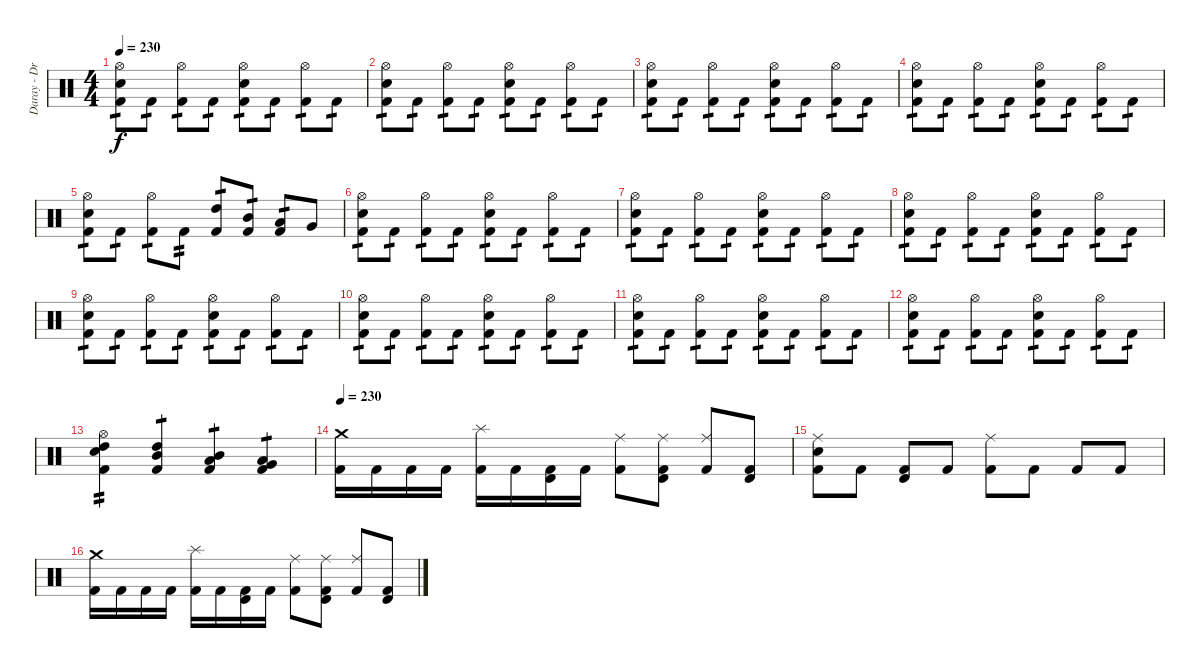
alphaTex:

\track ("Daray - Drums" "Daray - Dr") {instrument percussion}
\staff {score}
\articulation defaults
\ts (4 4)
\tempo 230
\clef neutral
\ks c
("Hi-Hat (open)" "Electric Snare (hit)" "Kick (hit) 2").8{tp 1 dy f} "Kick (hit) 2".8{tp 1} ("Hi-Hat (open)" "Kick (hit) 2").8{tp 1} "Kick (hit) 2".8{tp 1} ("Hi-Hat (open)" "Electric Snare (hit)" "Kick (hit) 2").8{tp 1} "Kick (hit) 2".8{tp 1} ("Hi-Hat (open)" "Kick (hit) 2").8{tp 1} "Kick (hit) 2".8{tp 1} |
("Hi-Hat (open)" "Electric Snare (hit)" "Kick (hit) 2").8{tp 1} "Kick (hit) 2".8{tp 1} ("Hi-Hat (open)" "Kick (hit) 2").8{tp 1} "Kick (hit) 2".8{tp 1} ("Hi-Hat (open)" "Electric Snare (hit)" "Kick (hit) 2").8{tp 1} "Kick (hit) 2".8{tp 1} ("Hi-Hat (open)" "Kick (hit) 2").8{tp 1} "Kick (hit) 2".8{tp 1} |
("Hi-Hat (open)" "Electric Snare (hit)" "Kick (hit) 2").8{tp 1} "Kick (hit) 2".8{tp 1} ("Hi-Hat (open)" "Kick (hit) 2").8{tp 1} "Kick (hit) 2".8{tp 1} ("Hi-Hat (open)" "Electric Snare (hit)" "Kick (hit) 2").8{tp 1} "Kick (hit) 2".8{tp 1} ("Hi-Hat (open)" "Kick (hit) 2").8{tp 1} "Kick (hit) 2".8{tp 1} |
("Hi-Hat (open)" "Electric Snare (hit)" "Kick (hit) 2").8{tp 1} "Kick (hit) 2".8{tp 1} ("Hi-Hat (open)" "Kick (hit) 2").8{tp 1} "Kick (hit) 2".8{tp 1} ("Hi-Hat (open)" "Electric Snare (hit)" "Kick (hit) 2").8{tp 1} "Kick (hit) 2".8{tp 1} ("Hi-Hat (open)" "Kick (hit) 2").8{tp 1} "Kick (hit) 2".8{tp 1} |
("Hi-Hat (open)" "Electric Snare (hit)" "Kick (hit) 2").8{tp 1} "Kick (hit) 2".8{tp 1} ("Hi-Hat (open)" "Kick (hit) 2").8{tp 1} "Kick (hit) 2".8{tp 2} ("High Tom (hit)" "Kick (hit) 2").8{tp 1} ("Mid Tom (hit)" "Kick (hit) 2").8{tp 1} ("Low Tom (hit)" "Kick (hit) 2").8{tp 1} "Very Low Tom (hit)".8 |
("Hi-Hat (open)" "Electric Snare (hit)" "Kick (hit) 2").8{tp 1} "Kick (hit) 2".8{tp 1} ("Hi-Hat (open)" "Kick (hit) 2").8{tp 1} "Kick (hit) 2".8{tp 1} ("Hi-Hat (open)" "Electric Snare (hit)" "Kick (hit) 2").8{tp 1} "Kick (hit) 2".8{tp 1} ("Hi-Hat (open)" "Kick (hit) 2").8{tp 1} "Kick (hit) 2".8{tp 1} |
("Hi-Hat (open)" "Electric Snare (hit)" "Kick (hit) 2").8{tp 1} "Kick (hit) 2".8{tp 1} ("Hi-Hat (open)" "Kick (hit) 2").8{tp 1} "Kick (hit) 2".8{tp 1} ("Hi-Hat (open)" "Electric Snare (hit)" "Kick (hit) 2").8{tp 1} "Kick (hit) 2".8{tp 1} ("Hi-Hat (open)" "Kick (hit) 2").8{tp 1} "Kick (hit) 2".8{tp 1} |
("Hi-Hat (open)" "Electric Snare (hit)" "Kick (hit) 2").8{tp 1} "Kick (hit) 2".8{tp 1} ("Hi-Hat (open)" "Kick (hit) 2").8{tp 1} "Kick (hit) 2".8{tp 1} ("Hi-Hat (open)" "Electric Snare (hit)" "Kick (hit) 2").8{tp 1} "Kick (hit) 2".8{tp 1} ("Hi-Hat (open)" "Kick (hit) 2").8{tp 1} "Kick (hit) 2".8{tp 1} |
("Hi-Hat (open)" "Electric Snare (hit)" "Kick (hit) 2").8{tp 1} "Kick (hit) 2".8{tp 1} ("Hi-Hat (open)" "Kick (hit) 2").8{tp 1} "Kick (hit) 2".8{tp 1} ("Hi-Hat (open)" "Electric Snare (hit)" "Kick (hit) 2").8{tp 1} "Kick (hit) 2".8{tp 1} ("Hi-Hat (open)" "Kick (hit) 2").8{tp 1} "Kick (hit) 2".8{tp 1} |
("Hi-Hat (open)" "Electric Snare (hit)" "Kick (hit) 2").8{tp 1} "Kick (hit) 2".8{tp 1} ("Hi-Hat (open)" "Kick (hit) 2").8{tp 1} "Kick (hit) 2".8{tp 1} ("Hi-Hat (open)" "Electric Snare (hit)" "Kick (hit) 2").8{tp 1} "Kick (hit) 2".8{tp 1} ("Hi-Hat (open)" "Kick (hit) 2").8{tp 1} "Kick (hit) 2".8{tp 1} |
("Hi-Hat (open)" "Electric Snare (hit)" "Kick (hit) 2").8{tp 1} "Kick (hit) 2".8{tp 1} ("Hi-Hat (open)" "Kick (hit) 2").8{tp 1} "Kick (hit) 2".8{tp 1} ("Hi-Hat (open)" "Electric Snare (hit)" "Kick (hit) 2").8{tp 1} "Kick (hit) 2".8{tp 1} ("Hi-Hat (open)" "Kick (hit) 2").8{tp 1} "Kick (hit) 2".8{tp 1} |
("Hi-Hat (open)" "Electric Snare (hit)" "Kick (hit) 2").8{tp 1} "Kick (hit) 2".8{tp 1} ("Hi-Hat (open)" "Kick (hit) 2").8{tp 1} "Kick (hit) 2".8{tp 1} ("Hi-Hat (open)" "Electric Snare (hit)" "Kick (hit) 2").8{tp 1} "Kick (hit) 2".8{tp 1} ("Hi-Hat (open)" "Kick (hit) 2").8{tp 1} "Kick (hit) 2".8{tp 1} |
("Hi-Hat (open)" "Electric Snare (hit)" "High Tom (hit)" "Kick (hit) 2").4{tp 2} ("High Tom (hit)" "Mid Tom (hit)" "Kick (hit) 2").4{tp 1} ("Mid Tom (hit)" "Low Tom (hit)" "Kick (hit) 2").4{tp 1} ("Low Tom (hit)" "Very Low Tom (hit)" "Kick (hit) 2").4{tp 1} |
\tempo 230
("Crash medium (hit)" "Kick (hit) 2").16 "Kick (hit) 2".16 "Kick (hit) 2".16 "Kick (hit) 2".16 ("Splash (hit)" "Kick (hit) 2").16 "Kick (hit) 2".16 ("Timbale high (hit)" "Kick (hit) 2").16 "Kick (hit) 2".16 ("Ride (middle)" "Kick (hit) 2").8 ("Ride (middle)" "Timbale high (hit)" "Kick (hit) 2").8 ("Ride (middle)" "Kick (hit) 2").8 ("Timbale high (hit)" "Kick (hit) 2").8 |
("Ride (middle)" "Electric Snare (hit)" "Kick (hit) 2").8 "Kick (hit) 2".8 ("Timbale high (hit)" "Kick (hit) 2").8 "Kick (hit) 2".8 ("Ride (middle)" "Kick (hit) 2").8 "Kick (hit) 2".8 "Kick (hit) 2".8 "Kick (hit) 2".8 |
("Crash medium (hit)" "Kick (hit) 2").16 "Kick (hit) 2".16 "Kick (hit) 2".16 "Kick (hit) 2".16 ("Splash (hit)" "Kick (hit) 2").16 "Kick (hit) 2".16 ("Timbale high (hit)" "Kick (hit) 2").16 "Kick (hit) 2".16 ("Ride (middle)" "Kick (hit) 2").8 ("Ride (middle)" "Timbale high (hit)" "Kick (hit) 2").8 ("Ride (middle)" "Kick (hit) 2").8 ("Timbale high (hit)" "Kick (hit) 2").8
